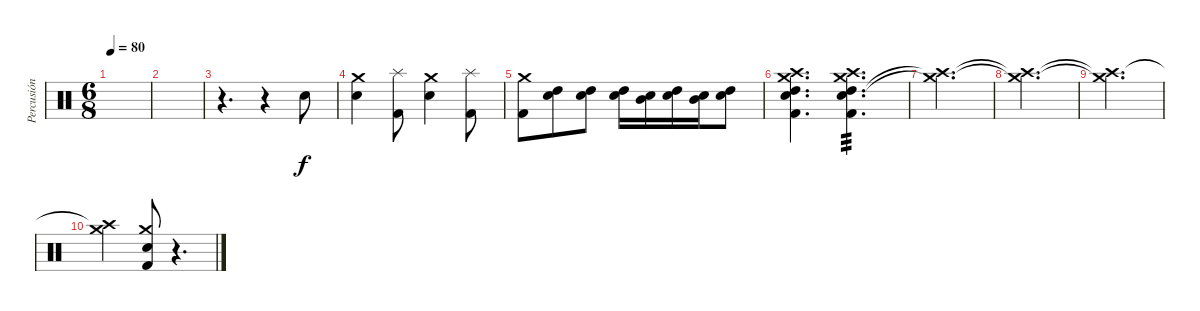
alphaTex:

\track ("Percusión" "Percusión") {instrument percussion}
\staff {score}
\articulation defaults
\ts (6 8)
\tempo 80
\clef neutral
\ks c
|
|
r.4{d} r.4 "Snare (hit) 2".8 |
("Snare (hit) 2" "Crash medium (hit)").4 ("Kick (hit) 2" "Splash (hit)").8 ("Snare (hit) 2" "Crash medium (hit)").4 ("Kick (hit) 2" "Splash (hit)").8 |
("Kick (hit) 2" "Crash medium (hit)").8 ("High Tom (hit)" "Snare (hit) 2").8 ("High Tom (hit)" "Snare (hit) 2").8 ("High Tom (hit)" "Snare (hit) 2").16 ("Mid Tom (hit)" "Snare (hit) 2").16 ("High Tom (hit)" "Snare (hit) 2").16 ("Mid Tom (hit)" "Snare (hit) 2").16 ("High Tom (hit)" "Snare (hit) 2").8 |
("Snare (hit) 2" "High Tom (hit)" "Crash medium (hit)" "Kick (hit) 2" "Crash high (hit)").4{d} ("Snare (hit) 2" "High Tom (hit)" "Crash medium (hit)" "Kick (hit) 2" "Crash high (hit)").4{d tp 3} |
("Crash medium (hit)"{t} "Crash high (hit)"{t}).2{d} |
("Crash medium (hit)"{t} "Crash high (hit)"{t}).2{d} |
("Crash medium (hit)"{t} "Crash high (hit)"{t}).2{d} |
("Crash medium (hit)" "Crash high (hit)"{t}).4 ("Snare (hit) 2" "Crash medium (hit)" "Kick (hit) 2").8 r.4{d}
